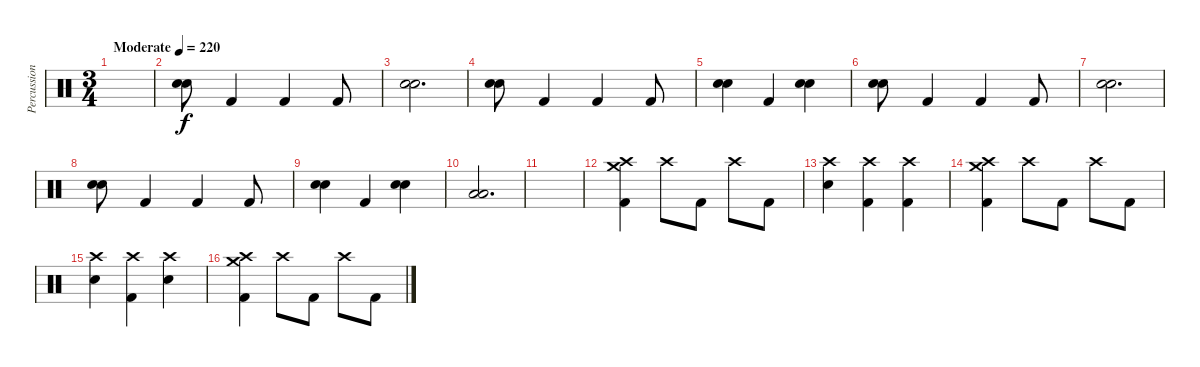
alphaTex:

\track ("Percussions" "Percussion") {instrument percussion}
\staff {score}
\articulation defaults
\ts (3 4)
\tempo (220 "Moderate")
\clef neutral
\ks c
|
("Electric Snare (hit)" "Electric Snare (hit)").8{bd 240} "Kick (hit) 2".4 "Kick (hit) 2".4 "Kick (hit) 2".8 |
("Electric Snare (hit)" "Electric Snare (hit)").2{d bd 240} |
("Electric Snare (hit)" "Electric Snare (hit)").8{bd 240} "Kick (hit) 2".4 "Kick (hit) 2".4 "Kick (hit) 2".8 |
("Electric Snare (hit)" "Electric Snare (hit)").4{bd 240} "Kick (hit) 2".4 ("Electric Snare (hit)" "Electric Snare (hit)").4{bd 240} |
("Electric Snare (hit)" "Electric Snare (hit)").8{bd 240} "Kick (hit) 2".4 "Kick (hit) 2".4 "Kick (hit) 2".8 |
("Electric Snare (hit)" "Electric Snare (hit)").2{d bd 240} |
("Electric Snare (hit)" "Electric Snare (hit)").8{bd 240} "Kick (hit) 2".4 "Kick (hit) 2".4 "Kick (hit) 2".8 |
("Electric Snare (hit)" "Electric Snare (hit)").4{bd 240} "Kick (hit) 2".4 ("Electric Snare (hit)" "Electric Snare (hit)").4{bd 240} |
("Low Tom (hit)" "Low Floor Tom (hit)").2{d bd 240} |
|
("Crash high (hit)" "Crash medium (hit)" "Kick (hit) 2").4{bd 240} "Crash high (hit)".8 "Kick (hit) 2".8 "Crash high (hit)".8 "Kick (hit) 2".8 |
("Crash high (hit)" "Electric Snare (hit)").4 ("Crash high (hit)" "Kick (hit) 2").4 ("Crash high (hit)" "Kick (hit) 2").4 |
("Crash high (hit)" "Crash medium (hit)" "Kick (hit) 2").4 "Crash high (hit)".8 "Kick (hit) 2".8 "Crash high (hit)".8 "Kick (hit) 2".8 |
("Crash high (hit)" "Electric Snare (hit)").4 ("Crash high (hit)" "Kick (hit) 2").4 ("Crash high (hit)" "Electric Snare (hit)").4 |
("Crash high (hit)" "Crash medium (hit)" "Kick (hit) 2").4 "Crash high (hit)".8 "Kick (hit) 2".8 "Crash high (hit)".8 "Kick (hit) 2".8
